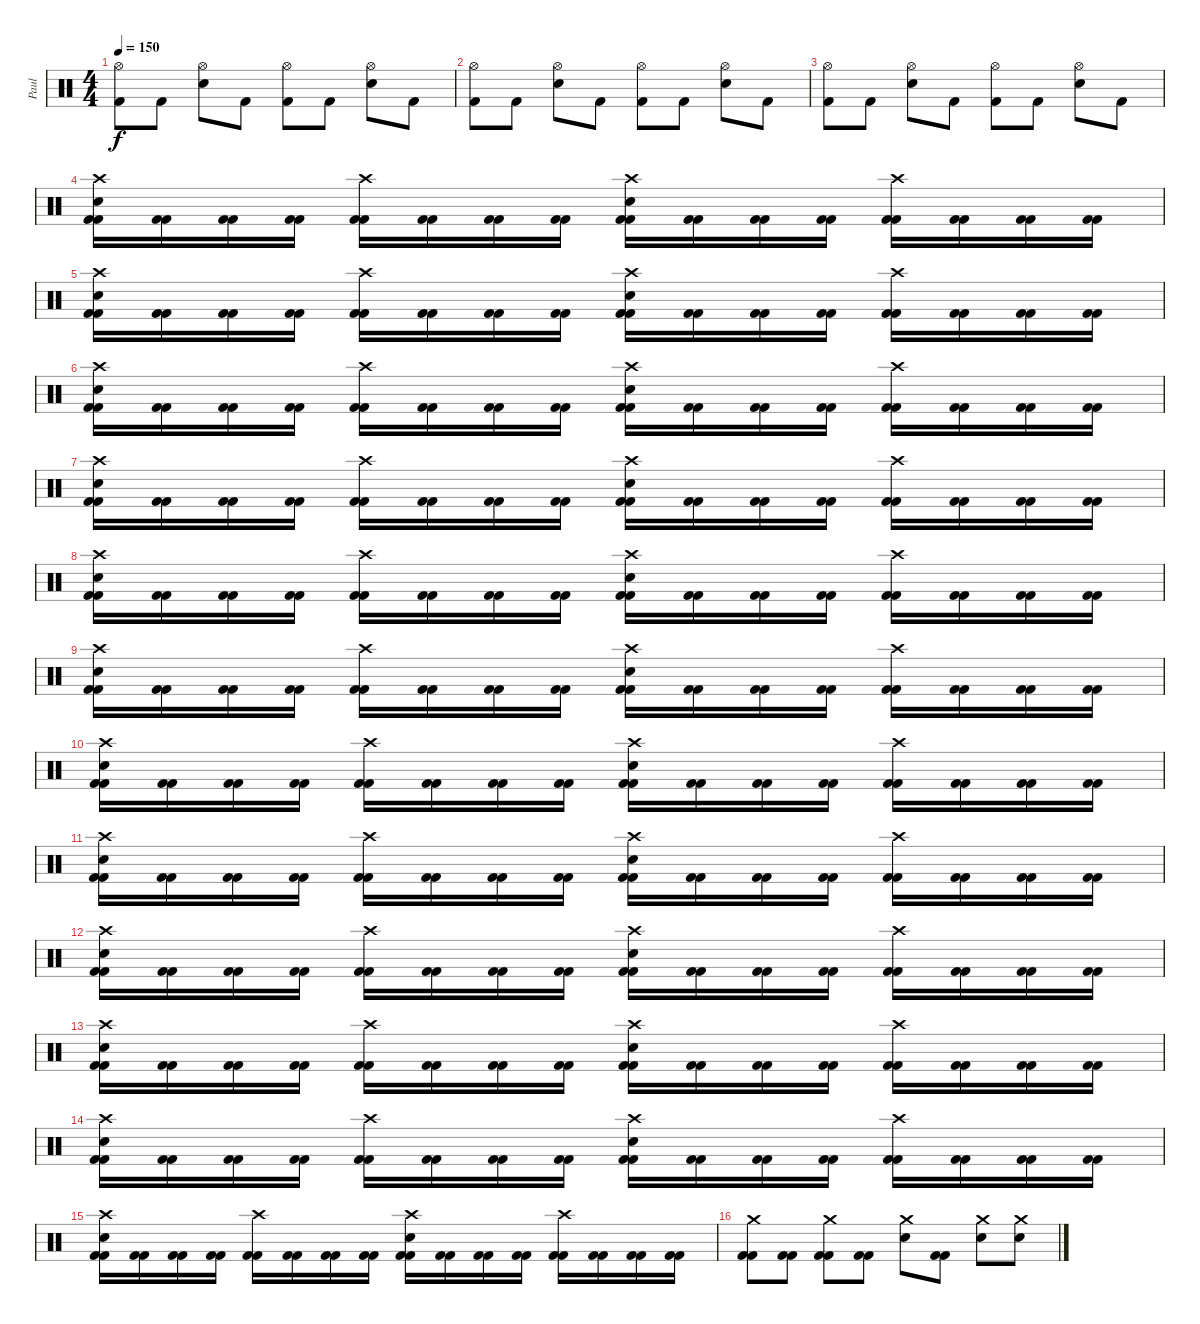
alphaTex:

\track ("Paul " "Paul ") {instrument percussion}
\staff {score}
\articulation defaults
\ts (4 4)
\tempo 150
\clef neutral
\ks c
("Hi-Hat (open)" "Kick (hit) 2").8{dy f} "Kick (hit) 2".8 ("Hi-Hat (open)" "Electric Snare (hit)").8 "Kick (hit) 2".8 ("Hi-Hat (open)" "Kick (hit) 2").8 "Kick (hit) 2".8 ("Hi-Hat (open)" "Electric Snare (hit)").8 "Kick (hit) 2".8 |
("Hi-Hat (open)" "Kick (hit) 2").8 "Kick (hit) 2".8 ("Hi-Hat (open)" "Electric Snare (hit)").8 "Kick (hit) 2".8 ("Hi-Hat (open)" "Kick (hit) 2").8 "Kick (hit) 2".8 ("Hi-Hat (open)" "Electric Snare (hit)").8 "Kick (hit) 2".8 |
("Hi-Hat (open)" "Kick (hit) 2").8 "Kick (hit) 2".8 ("Hi-Hat (open)" "Electric Snare (hit)").8 "Kick (hit) 2".8 ("Hi-Hat (open)" "Kick (hit) 2").8 "Kick (hit) 2".8 ("Hi-Hat (open)" "Electric Snare (hit)").8 "Kick (hit) 2".8 |
("Crash high (hit)" "Electric Snare (hit)" "Kick (hit) 2" "Kick (hit) 2").16 ("Kick (hit) 2" "Kick (hit) 2").16 ("Kick (hit) 2" "Kick (hit) 2").16 ("Kick (hit) 2" "Kick (hit) 2").16 ("Crash high (hit)" "Kick (hit) 2" "Kick (hit) 2").16 ("Kick (hit) 2" "Kick (hit) 2").16 ("Kick (hit) 2" "Kick (hit) 2").16 ("Kick (hit) 2" "Kick (hit) 2").16 ("Crash high (hit)" "Electric Snare (hit)" "Kick (hit) 2" "Kick (hit) 2").16 ("Kick (hit) 2" "Kick (hit) 2").16 ("Kick (hit) 2" "Kick (hit) 2").16 ("Kick (hit) 2" "Kick (hit) 2").16 ("Crash high (hit)" "Kick (hit) 2" "Kick (hit) 2").16 ("Kick (hit) 2" "Kick (hit) 2").16 ("Kick (hit) 2" "Kick (hit) 2").16 ("Kick (hit) 2" "Kick (hit) 2").16 |
("Crash high (hit)" "Electric Snare (hit)" "Kick (hit) 2" "Kick (hit) 2").16 ("Kick (hit) 2" "Kick (hit) 2").16 ("Kick (hit) 2" "Kick (hit) 2").16 ("Kick (hit) 2" "Kick (hit) 2").16 ("Crash high (hit)" "Kick (hit) 2" "Kick (hit) 2").16 ("Kick (hit) 2" "Kick (hit) 2").16 ("Kick (hit) 2" "Kick (hit) 2").16 ("Kick (hit) 2" "Kick (hit) 2").16 ("Crash high (hit)" "Electric Snare (hit)" "Kick (hit) 2" "Kick (hit) 2").16 ("Kick (hit) 2" "Kick (hit) 2").16 ("Kick (hit) 2" "Kick (hit) 2").16 ("Kick (hit) 2" "Kick (hit) 2").16 ("Crash high (hit)" "Kick (hit) 2" "Kick (hit) 2").16 ("Kick (hit) 2" "Kick (hit) 2").16 ("Kick (hit) 2" "Kick (hit) 2").16 ("Kick (hit) 2" "Kick (hit) 2").16 |
("Crash high (hit)" "Electric Snare (hit)" "Kick (hit) 2" "Kick (hit) 2").16 ("Kick (hit) 2" "Kick (hit) 2").16 ("Kick (hit) 2" "Kick (hit) 2").16 ("Kick (hit) 2" "Kick (hit) 2").16 ("Crash high (hit)" "Kick (hit) 2" "Kick (hit) 2").16 ("Kick (hit) 2" "Kick (hit) 2").16 ("Kick (hit) 2" "Kick (hit) 2").16 ("Kick (hit) 2" "Kick (hit) 2").16 ("Crash high (hit)" "Electric Snare (hit)" "Kick (hit) 2" "Kick (hit) 2").16 ("Kick (hit) 2" "Kick (hit) 2").16 ("Kick (hit) 2" "Kick (hit) 2").16 ("Kick (hit) 2" "Kick (hit) 2").16 ("Crash high (hit)" "Kick (hit) 2" "Kick (hit) 2").16 ("Kick (hit) 2" "Kick (hit) 2").16 ("Kick (hit) 2" "Kick (hit) 2").16 ("Kick (hit) 2" "Kick (hit) 2").16 |
("Crash high (hit)" "Electric Snare (hit)" "Kick (hit) 2" "Kick (hit) 2").16 ("Kick (hit) 2" "Kick (hit) 2").16 ("Kick (hit) 2" "Kick (hit) 2").16 ("Kick (hit) 2" "Kick (hit) 2").16 ("Crash high (hit)" "Kick (hit) 2" "Kick (hit) 2").16 ("Kick (hit) 2" "Kick (hit) 2").16 ("Kick (hit) 2" "Kick (hit) 2").16 ("Kick (hit) 2" "Kick (hit) 2").16 ("Crash high (hit)" "Electric Snare (hit)" "Kick (hit) 2" "Kick (hit) 2").16 ("Kick (hit) 2" "Kick (hit) 2").16 ("Kick (hit) 2" "Kick (hit) 2").16 ("Kick (hit) 2" "Kick (hit) 2").16 ("Crash high (hit)" "Kick (hit) 2" "Kick (hit) 2").16 ("Kick (hit) 2" "Kick (hit) 2").16 ("Kick (hit) 2" "Kick (hit) 2").16 ("Kick (hit) 2" "Kick (hit) 2").16 |
("Crash high (hit)" "Electric Snare (hit)" "Kick (hit) 2" "Kick (hit) 2").16 ("Kick (hit) 2" "Kick (hit) 2").16 ("Kick (hit) 2" "Kick (hit) 2").16 ("Kick (hit) 2" "Kick (hit) 2").16 ("Crash high (hit)" "Kick (hit) 2" "Kick (hit) 2").16 ("Kick (hit) 2" "Kick (hit) 2").16 ("Kick (hit) 2" "Kick (hit) 2").16 ("Kick (hit) 2" "Kick (hit) 2").16 ("Crash high (hit)" "Electric Snare (hit)" "Kick (hit) 2" "Kick (hit) 2").16 ("Kick (hit) 2" "Kick (hit) 2").16 ("Kick (hit) 2" "Kick (hit) 2").16 ("Kick (hit) 2" "Kick (hit) 2").16 ("Crash high (hit)" "Kick (hit) 2" "Kick (hit) 2").16 ("Kick (hit) 2" "Kick (hit) 2").16 ("Kick (hit) 2" "Kick (hit) 2").16 ("Kick (hit) 2" "Kick (hit) 2").16 |
("Crash high (hit)" "Electric Snare (hit)" "Kick (hit) 2" "Kick (hit) 2").16 ("Kick (hit) 2" "Kick (hit) 2").16 ("Kick (hit) 2" "Kick (hit) 2").16 ("Kick (hit) 2" "Kick (hit) 2").16 ("Crash high (hit)" "Kick (hit) 2" "Kick (hit) 2").16 ("Kick (hit) 2" "Kick (hit) 2").16 ("Kick (hit) 2" "Kick (hit) 2").16 ("Kick (hit) 2" "Kick (hit) 2").16 ("Crash high (hit)" "Electric Snare (hit)" "Kick (hit) 2" "Kick (hit) 2").16 ("Kick (hit) 2" "Kick (hit) 2").16 ("Kick (hit) 2" "Kick (hit) 2").16 ("Kick (hit) 2" "Kick (hit) 2").16 ("Crash high (hit)" "Kick (hit) 2" "Kick (hit) 2").16 ("Kick (hit) 2" "Kick (hit) 2").16 ("Kick (hit) 2" "Kick (hit) 2").16 ("Kick (hit) 2" "Kick (hit) 2").16 |
("Crash high (hit)" "Electric Snare (hit)" "Kick (hit) 2" "Kick (hit) 2").16 ("Kick (hit) 2" "Kick (hit) 2").16 ("Kick (hit) 2" "Kick (hit) 2").16 ("Kick (hit) 2" "Kick (hit) 2").16 ("Crash high (hit)" "Kick (hit) 2" "Kick (hit) 2").16 ("Kick (hit) 2" "Kick (hit) 2").16 ("Kick (hit) 2" "Kick (hit) 2").16 ("Kick (hit) 2" "Kick (hit) 2").16 ("Crash high (hit)" "Electric Snare (hit)" "Kick (hit) 2" "Kick (hit) 2").16 ("Kick (hit) 2" "Kick (hit) 2").16 ("Kick (hit) 2" "Kick (hit) 2").16 ("Kick (hit) 2" "Kick (hit) 2").16 ("Crash high (hit)" "Kick (hit) 2" "Kick (hit) 2").16 ("Kick (hit) 2" "Kick (hit) 2").16 ("Kick (hit) 2" "Kick (hit) 2").16 ("Kick (hit) 2" "Kick (hit) 2").16 |
("Crash high (hit)" "Electric Snare (hit)" "Kick (hit) 2" "Kick (hit) 2").16 ("Kick (hit) 2" "Kick (hit) 2").16 ("Kick (hit) 2" "Kick (hit) 2").16 ("Kick (hit) 2" "Kick (hit) 2").16 ("Crash high (hit)" "Kick (hit) 2" "Kick (hit) 2").16 ("Kick (hit) 2" "Kick (hit) 2").16 ("Kick (hit) 2" "Kick (hit) 2").16 ("Kick (hit) 2" "Kick (hit) 2").16 ("Crash high (hit)" "Electric Snare (hit)" "Kick (hit) 2" "Kick (hit) 2").16 ("Kick (hit) 2" "Kick (hit) 2").16 ("Kick (hit) 2" "Kick (hit) 2").16 ("Kick (hit) 2" "Kick (hit) 2").16 ("Crash high (hit)" "Kick (hit) 2" "Kick (hit) 2").16 ("Kick (hit) 2" "Kick (hit) 2").16 ("Kick (hit) 2" "Kick (hit) 2").16 ("Kick (hit) 2" "Kick (hit) 2").16 |
("Crash high (hit)" "Electric Snare (hit)" "Kick (hit) 2" "Kick (hit) 2").16 ("Kick (hit) 2" "Kick (hit) 2").16 ("Kick (hit) 2" "Kick (hit) 2").16 ("Kick (hit) 2" "Kick (hit) 2").16 ("Crash high (hit)" "Kick (hit) 2" "Kick (hit) 2").16 ("Kick (hit) 2" "Kick (hit) 2").16 ("Kick (hit) 2" "Kick (hit) 2").16 ("Kick (hit) 2" "Kick (hit) 2").16 ("Crash high (hit)" "Electric Snare (hit)" "Kick (hit) 2" "Kick (hit) 2").16 ("Kick (hit) 2" "Kick (hit) 2").16 ("Kick (hit) 2" "Kick (hit) 2").16 ("Kick (hit) 2" "Kick (hit) 2").16 ("Crash high (hit)" "Kick (hit) 2" "Kick (hit) 2").16 ("Kick (hit) 2" "Kick (hit) 2").16 ("Kick (hit) 2" "Kick (hit) 2").16 ("Kick (hit) 2" "Kick (hit) 2").16 |
("Crash high (hit)" "Electric Snare (hit)" "Kick (hit) 2" "Kick (hit) 2").16 ("Kick (hit) 2" "Kick (hit) 2").16 ("Kick (hit) 2" "Kick (hit) 2").16 ("Kick (hit) 2" "Kick (hit) 2").16 ("Crash high (hit)" "Kick (hit) 2" "Kick (hit) 2").16 ("Kick (hit) 2" "Kick (hit) 2").16 ("Kick (hit) 2" "Kick (hit) 2").16 ("Kick (hit) 2" "Kick (hit) 2").16 ("Crash high (hit)" "Electric Snare (hit)" "Kick (hit) 2" "Kick (hit) 2").16 ("Kick (hit) 2" "Kick (hit) 2").16 ("Kick (hit) 2" "Kick (hit) 2").16 ("Kick (hit) 2" "Kick (hit) 2").16 ("Crash high (hit)" "Kick (hit) 2" "Kick (hit) 2").16 ("Kick (hit) 2" "Kick (hit) 2").16 ("Kick (hit) 2" "Kick (hit) 2").16 ("Kick (hit) 2" "Kick (hit) 2").16 |
("Crash high (hit)" "Electric Snare (hit)" "Kick (hit) 2" "Kick (hit) 2").16 ("Kick (hit) 2" "Kick (hit) 2").16 ("Kick (hit) 2" "Kick (hit) 2").16 ("Kick (hit) 2" "Kick (hit) 2").16 ("Crash high (hit)" "Kick (hit) 2" "Kick (hit) 2").16 ("Kick (hit) 2" "Kick (hit) 2").16 ("Kick (hit) 2" "Kick (hit) 2").16 ("Kick (hit) 2" "Kick (hit) 2").16 ("Crash high (hit)" "Electric Snare (hit)" "Kick (hit) 2" "Kick (hit) 2").16 ("Kick (hit) 2" "Kick (hit) 2").16 ("Kick (hit) 2" "Kick (hit) 2").16 ("Kick (hit) 2" "Kick (hit) 2").16 ("Crash high (hit)" "Kick (hit) 2" "Kick (hit) 2").16 ("Kick (hit) 2" "Kick (hit) 2").16 ("Kick (hit) 2" "Kick (hit) 2").16 ("Kick (hit) 2" "Kick (hit) 2").16 |
("Crash high (hit)" "Electric Snare (hit)" "Kick (hit) 2" "Kick (hit) 2").16 ("Kick (hit) 2" "Kick (hit) 2").16 ("Kick (hit) 2" "Kick (hit) 2").16 ("Kick (hit) 2" "Kick (hit) 2").16 ("Crash high (hit)" "Kick (hit) 2" "Kick (hit) 2").16 ("Kick (hit) 2" "Kick (hit) 2").16 ("Kick (hit) 2" "Kick (hit) 2").16 ("Kick (hit) 2" "Kick (hit) 2").16 ("Crash high (hit)" "Electric Snare (hit)" "Kick (hit) 2" "Kick (hit) 2").16 ("Kick (hit) 2" "Kick (hit) 2").16 ("Kick (hit) 2" "Kick (hit) 2").16 ("Kick (hit) 2" "Kick (hit) 2").16 ("Crash high (hit)" "Kick (hit) 2" "Kick (hit) 2").16 ("Kick (hit) 2" "Kick (hit) 2").16 ("Kick (hit) 2" "Kick (hit) 2").16 ("Kick (hit) 2" "Kick (hit) 2").16 |
("Crash medium (hit)" "Kick (hit) 2" "Kick (hit) 2").8 ("Kick (hit) 2" "Kick (hit) 2").8{txt " "} ("Crash medium (hit)" "Kick (hit) 2" "Kick (hit) 2").8 ("Kick (hit) 2" "Kick (hit) 2").8 ("Crash medium (hit)" "Snare (hit) 2").8 ("Kick (hit) 2" "Kick (hit) 2").8 ("Crash medium (hit)" "Snare (hit) 2").8 ("Crash medium (hit)" "Snare (hit) 2").8
